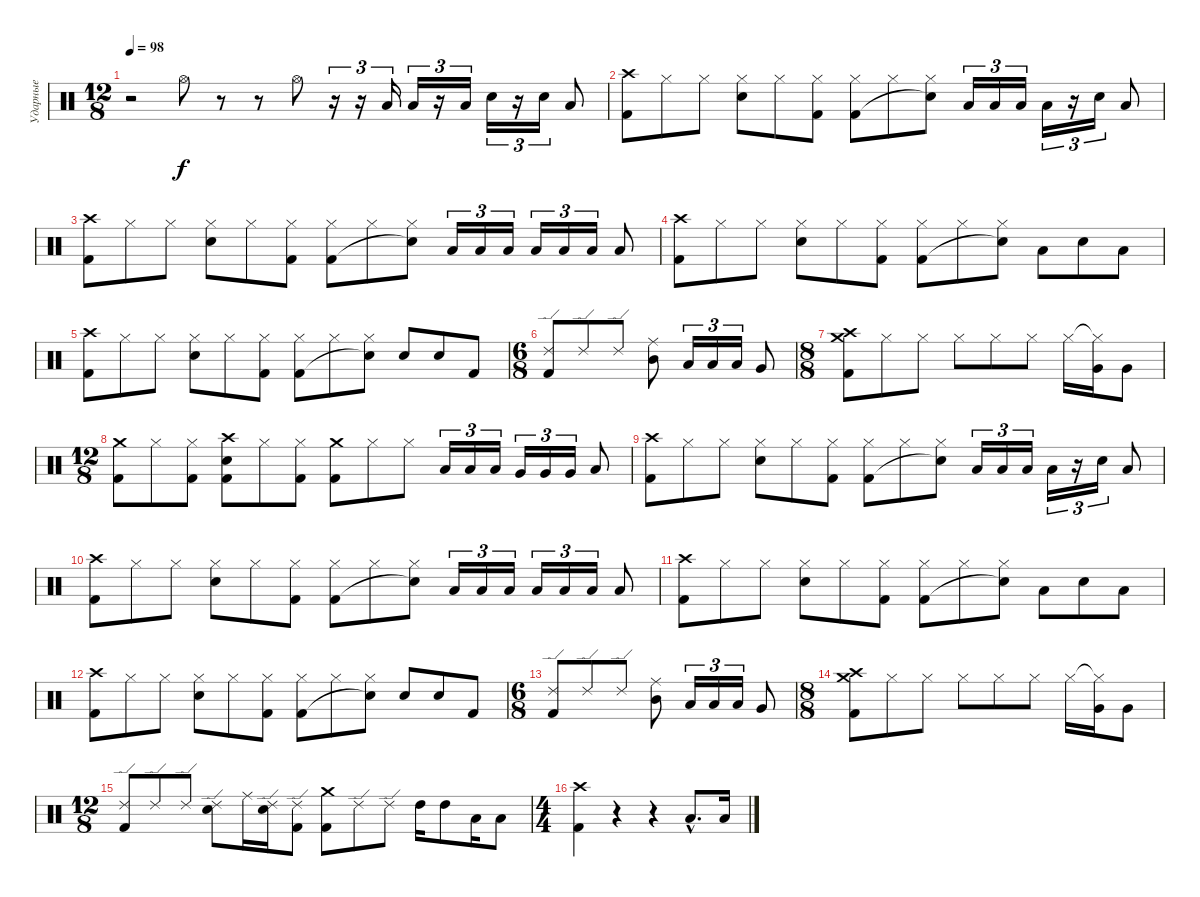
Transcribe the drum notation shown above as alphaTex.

\track ("Ударные" "Ударные") {instrument percussion}
\staff {score}
\articulation defaults
\ts (12 8)
\tempo 98
\clef neutral
\ks c
r.2{dy f volume 9} "Hi-Hat (open)".8 r.8 r.8 "Hi-Hat (open)".8 r.16{tu (3 2)} r.16{tu (3 2)} "Low Tom (hit)".16{tu (3 2)} "Low Tom (hit)".16{tu (3 2)} r.16{tu (3 2)} "Low Tom (hit)".16{tu (3 2)} "Snare (hit) 2".16{tu (3 2)} r.16{tu (3 2)} "Snare (hit) 2".16{tu (3 2)} "Low Tom (hit)".8 |
("Crash high (hit)" "Kick (hit) 2").8 "Hi-Hat (closed)".8 "Hi-Hat (closed)".8 ("Hi-Hat (closed)" "Snare (hit) 2").8 "Hi-Hat (closed)".8 ("Hi-Hat (closed)" "Kick (hit) 2").8 ("Hi-Hat (closed)" "Kick (hit) 2").8 "Hi-Hat (closed)".8 ("Hi-Hat (closed)" "Snare (hit)"{t}).8 "Low Tom (hit)".16{tu (3 2)} "Low Tom (hit)".16{tu (3 2)} "Low Tom (hit)".16{tu (3 2)} "Low Tom (hit)".16{tu (3 2)} r.16{tu (3 2)} "Snare (hit) 2".16{tu (3 2)} "Low Tom (hit)".8 |
("Crash high (hit)" "Kick (hit) 2").8 "Hi-Hat (closed)".8 "Hi-Hat (closed)".8 ("Hi-Hat (closed)" "Snare (hit) 2").8 "Hi-Hat (closed)".8 ("Hi-Hat (closed)" "Kick (hit) 2").8 ("Hi-Hat (closed)" "Kick (hit) 2").8 "Hi-Hat (closed)".8 ("Hi-Hat (closed)" "Snare (hit)"{t}).8 "Low Tom (hit)".16{tu (3 2)} "Low Tom (hit)".16{tu (3 2)} "Low Tom (hit)".16{tu (3 2)} "Low Tom (hit)".16{tu (3 2)} "Low Tom (hit)".16{tu (3 2)} "Low Tom (hit)".16{tu (3 2)} "Low Tom (hit)".8 |
("Crash high (hit)" "Kick (hit) 2").8 "Hi-Hat (closed)".8 "Hi-Hat (closed)".8 ("Hi-Hat (closed)" "Snare (hit) 2").8 "Hi-Hat (closed)".8 ("Hi-Hat (closed)" "Kick (hit) 2").8 ("Hi-Hat (closed)" "Kick (hit) 2").8 "Hi-Hat (closed)".8 ("Hi-Hat (closed)" "Snare (hit)"{t}).8 "Low Tom (hit)".8 "Snare (hit) 2".8 "Low Tom (hit)".8 |
("Crash high (hit)" "Kick (hit) 2").8 "Hi-Hat (closed)".8 "Hi-Hat (closed)".8 ("Hi-Hat (closed)" "Snare (hit) 2").8 "Hi-Hat (closed)".8 ("Hi-Hat (closed)" "Kick (hit) 2").8 ("Hi-Hat (closed)" "Kick (hit) 2").8 "Hi-Hat (closed)".8 ("Hi-Hat (closed)" "Snare (hit)"{t}).8 "Snare (hit) 2".8 "Snare (hit) 2".8 "Kick (hit) 2".8 |
\ts (6 8)
("Ride (edge) 2" "Kick (hit) 2").8 "Ride (edge) 2".8 "Ride (edge) 2".8 ("Ride (middle)" "Mid Tom (hit)").8 "Low Tom (hit)".16{tu (3 2)} "Low Tom (hit)".16{tu (3 2)} "Low Tom (hit)".16{tu (3 2)} "Very Low Tom (hit)".8 |
\ts (8 8)
("Crash high (hit)" "Crash medium (hit)" "Kick (hit) 2").8 "Hi-Hat (closed)".8 "Hi-Hat (closed)".8 "Hi-Hat (closed)".8 "Hi-Hat (closed)".8 "Hi-Hat (closed)".8 "Hi-Hat (closed)".16 ("Hi-Hat (closed)"{t} "Very Low Tom (hit)").16 "Very Low Tom (hit)".8 |
\ts (12 8)
("Crash medium (hit)" "Kick (hit) 2").8 "Hi-Hat (closed)".8 ("Hi-Hat (closed)" "Kick (hit) 2").8 ("Crash high (hit)" "Snare (hit) 2" "Kick (hit) 2").8 "Hi-Hat (closed)".8 ("Hi-Hat (closed)" "Kick (hit) 2").8 ("Crash medium (hit)" "Kick (hit) 2").8 "Hi-Hat (closed)".8 "Hi-Hat (closed)".8 "Low Tom (hit)".16{tu (3 2)} "Low Tom (hit)".16{tu (3 2)} "Low Tom (hit)".16{tu (3 2)} "Very Low Tom (hit)".16{tu (3 2)} "Very Low Tom (hit)".16{tu (3 2)} "Very Low Tom (hit)".16{tu (3 2)} "Low Floor Tom (hit)".8 |
("Crash high (hit)" "Kick (hit) 2").8 "Hi-Hat (closed)".8 "Hi-Hat (closed)".8 ("Hi-Hat (closed)" "Snare (hit) 2").8 "Hi-Hat (closed)".8 ("Hi-Hat (closed)" "Kick (hit) 2").8 ("Hi-Hat (closed)" "Kick (hit) 2").8 "Hi-Hat (closed)".8 ("Hi-Hat (closed)" "Snare (hit)"{t}).8 "Low Tom (hit)".16{tu (3 2)} "Low Tom (hit)".16{tu (3 2)} "Low Tom (hit)".16{tu (3 2)} "Low Tom (hit)".16{tu (3 2)} r.16{tu (3 2)} "Snare (hit) 2".16{tu (3 2)} "Low Tom (hit)".8 |
("Crash high (hit)" "Kick (hit) 2").8 "Hi-Hat (closed)".8 "Hi-Hat (closed)".8 ("Hi-Hat (closed)" "Snare (hit) 2").8 "Hi-Hat (closed)".8 ("Hi-Hat (closed)" "Kick (hit) 2").8 ("Hi-Hat (closed)" "Kick (hit) 2").8 "Hi-Hat (closed)".8 ("Hi-Hat (closed)" "Snare (hit)"{t}).8 "Low Tom (hit)".16{tu (3 2)} "Low Tom (hit)".16{tu (3 2)} "Low Tom (hit)".16{tu (3 2)} "Low Tom (hit)".16{tu (3 2)} "Low Tom (hit)".16{tu (3 2)} "Low Tom (hit)".16{tu (3 2)} "Low Tom (hit)".8 |
("Crash high (hit)" "Kick (hit) 2").8 "Hi-Hat (closed)".8 "Hi-Hat (closed)".8 ("Hi-Hat (closed)" "Snare (hit) 2").8 "Hi-Hat (closed)".8 ("Hi-Hat (closed)" "Kick (hit) 2").8 ("Hi-Hat (closed)" "Kick (hit) 2").8 "Hi-Hat (closed)".8 ("Hi-Hat (closed)" "Snare (hit)"{t}).8 "Low Tom (hit)".8 "Snare (hit) 2".8 "Low Tom (hit)".8 |
("Crash high (hit)" "Kick (hit) 2").8 "Hi-Hat (closed)".8 "Hi-Hat (closed)".8 ("Hi-Hat (closed)" "Snare (hit) 2").8 "Hi-Hat (closed)".8 ("Hi-Hat (closed)" "Kick (hit) 2").8 ("Hi-Hat (closed)" "Kick (hit) 2").8 "Hi-Hat (closed)".8 ("Hi-Hat (closed)" "Snare (hit)"{t}).8 "Snare (hit) 2".8 "Snare (hit) 2".8 "Kick (hit) 2".8 |
\ts (6 8)
("Ride (edge) 2" "Kick (hit) 2").8 "Ride (edge) 2".8 "Ride (edge) 2".8 ("Ride (middle)" "Mid Tom (hit)").8 "Low Tom (hit)".16{tu (3 2)} "Low Tom (hit)".16{tu (3 2)} "Low Tom (hit)".16{tu (3 2)} "Very Low Tom (hit)".8 |
\ts (8 8)
("Crash high (hit)" "Crash medium (hit)" "Kick (hit) 2").8 "Hi-Hat (closed)".8 "Hi-Hat (closed)".8 "Hi-Hat (closed)".8 "Hi-Hat (closed)".8 "Hi-Hat (closed)".8 "Hi-Hat (closed)".16 ("Hi-Hat (closed)"{t} "Very Low Tom (hit)").16 "Very Low Tom (hit)".8 |
\ts (12 8)
("Ride (edge) 2" "Kick (hit) 2").8 "Ride (edge) 2".8 "Ride (edge) 2".8 ("Ride (edge) 2" "Snare (hit) 2").8 "Ride (middle)".16 ("Ride (edge) 2" "Snare (hit) 2").16 ("Ride (edge) 2" "Kick (hit) 2").8 ("Crash medium (hit)" "Kick (hit) 2").8 "Ride (edge) 2".8 "Ride (edge) 2".8 "High Tom (hit)".16 "High Tom (hit)".8 "Low Tom (hit)".16 "Low Tom (hit)".8 |
\ts (4 4)
("Crash high (hit)" "Kick (hit) 2").4 r.4 r.4 "Low Tom (hit)"{hac}.8{d} "Low Tom (hit)".16
